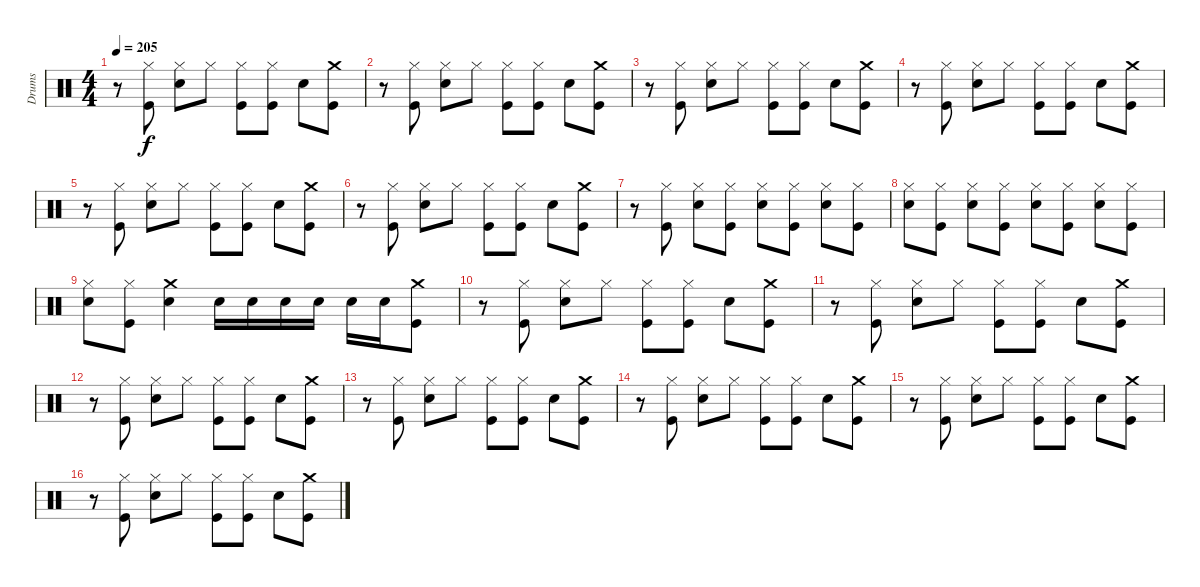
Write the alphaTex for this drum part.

\track ("Drums" "Drums") {instrument percussion}
\staff {score}
\articulation defaults
\ts (4 4)
\tempo 205
\clef neutral
\ks c
r.8{dy f} ("Hi-Hat (closed)" "Kick (hit)").8 ("Hi-Hat (closed)" "Electric Snare (hit)").8 "Hi-Hat (closed)".8 ("Hi-Hat (closed)" "Kick (hit)").8 ("Hi-Hat (closed)" "Kick (hit)").8 "Electric Snare (hit)".8 ("Crash medium (hit)" "Kick (hit)").8 |
r.8 ("Hi-Hat (closed)" "Kick (hit)").8 ("Hi-Hat (closed)" "Electric Snare (hit)").8 "Hi-Hat (closed)".8 ("Hi-Hat (closed)" "Kick (hit)").8 ("Hi-Hat (closed)" "Kick (hit)").8 "Electric Snare (hit)".8 ("Crash medium (hit)" "Kick (hit)").8 |
r.8 ("Hi-Hat (closed)" "Kick (hit)").8 ("Hi-Hat (closed)" "Electric Snare (hit)").8 "Hi-Hat (closed)".8 ("Hi-Hat (closed)" "Kick (hit)").8 ("Hi-Hat (closed)" "Kick (hit)").8 "Electric Snare (hit)".8 ("Crash medium (hit)" "Kick (hit)").8 |
r.8 ("Hi-Hat (closed)" "Kick (hit)").8 ("Hi-Hat (closed)" "Electric Snare (hit)").8 "Hi-Hat (closed)".8 ("Hi-Hat (closed)" "Kick (hit)").8 ("Hi-Hat (closed)" "Kick (hit)").8 "Electric Snare (hit)".8 ("Crash medium (hit)" "Kick (hit)").8 |
r.8 ("Hi-Hat (closed)" "Kick (hit)").8 ("Hi-Hat (closed)" "Electric Snare (hit)").8 "Hi-Hat (closed)".8 ("Hi-Hat (closed)" "Kick (hit)").8 ("Hi-Hat (closed)" "Kick (hit)").8 "Electric Snare (hit)".8 ("Crash medium (hit)" "Kick (hit)").8 |
r.8 ("Hi-Hat (closed)" "Kick (hit)").8 ("Hi-Hat (closed)" "Electric Snare (hit)").8 "Hi-Hat (closed)".8 ("Hi-Hat (closed)" "Kick (hit)").8 ("Hi-Hat (closed)" "Kick (hit)").8 "Electric Snare (hit)".8 ("Crash medium (hit)" "Kick (hit)").8 |
r.8 ("Hi-Hat (closed)" "Kick (hit)").8 ("Hi-Hat (closed)" "Electric Snare (hit)").8 ("Hi-Hat (closed)" "Kick (hit)").8 ("Hi-Hat (closed)" "Electric Snare (hit)").8 ("Hi-Hat (closed)" "Kick (hit)").8 ("Hi-Hat (closed)" "Electric Snare (hit)").8 ("Hi-Hat (closed)" "Kick (hit)").8 |
("Hi-Hat (closed)" "Electric Snare (hit)").8 ("Hi-Hat (closed)" "Kick (hit)").8 ("Hi-Hat (closed)" "Electric Snare (hit)").8 ("Hi-Hat (closed)" "Kick (hit)").8 ("Hi-Hat (closed)" "Electric Snare (hit)").8 ("Hi-Hat (closed)" "Kick (hit)").8 ("Hi-Hat (closed)" "Electric Snare (hit)").8 ("Hi-Hat (closed)" "Kick (hit)").8 |
("Hi-Hat (closed)" "Electric Snare (hit)").8 ("Hi-Hat (closed)" "Kick (hit)").8 ("Crash medium (hit)" "Electric Snare (hit)").4 "Electric Snare (hit)".16 "Electric Snare (hit)".16 "Electric Snare (hit)".16 "Electric Snare (hit)".16 "Electric Snare (hit)".16 "Electric Snare (hit)".16 ("Crash medium (hit)" "Kick (hit)").8 |
r.8 ("Hi-Hat (closed)" "Kick (hit)").8 ("Hi-Hat (closed)" "Electric Snare (hit)").8 "Hi-Hat (closed)".8 ("Hi-Hat (closed)" "Kick (hit)").8 ("Hi-Hat (closed)" "Kick (hit)").8 "Electric Snare (hit)".8 ("Crash medium (hit)" "Kick (hit)").8 |
r.8 ("Hi-Hat (closed)" "Kick (hit)").8 ("Hi-Hat (closed)" "Electric Snare (hit)").8 "Hi-Hat (closed)".8 ("Hi-Hat (closed)" "Kick (hit)").8 ("Hi-Hat (closed)" "Kick (hit)").8 "Electric Snare (hit)".8 ("Crash medium (hit)" "Kick (hit)").8 |
r.8 ("Hi-Hat (closed)" "Kick (hit)").8 ("Hi-Hat (closed)" "Electric Snare (hit)").8 "Hi-Hat (closed)".8 ("Hi-Hat (closed)" "Kick (hit)").8 ("Hi-Hat (closed)" "Kick (hit)").8 "Electric Snare (hit)".8 ("Crash medium (hit)" "Kick (hit)").8 |
r.8 ("Hi-Hat (closed)" "Kick (hit)").8 ("Hi-Hat (closed)" "Electric Snare (hit)").8 "Hi-Hat (closed)".8 ("Hi-Hat (closed)" "Kick (hit)").8 ("Hi-Hat (closed)" "Kick (hit)").8 "Electric Snare (hit)".8 ("Crash medium (hit)" "Kick (hit)").8 |
r.8 ("Hi-Hat (closed)" "Kick (hit)").8 ("Hi-Hat (closed)" "Electric Snare (hit)").8 "Hi-Hat (closed)".8 ("Hi-Hat (closed)" "Kick (hit)").8 ("Hi-Hat (closed)" "Kick (hit)").8 "Electric Snare (hit)".8 ("Crash medium (hit)" "Kick (hit)").8 |
r.8 ("Hi-Hat (closed)" "Kick (hit)").8 ("Hi-Hat (closed)" "Electric Snare (hit)").8 "Hi-Hat (closed)".8 ("Hi-Hat (closed)" "Kick (hit)").8 ("Hi-Hat (closed)" "Kick (hit)").8 "Electric Snare (hit)".8 ("Crash medium (hit)" "Kick (hit)").8 |
r.8 ("Hi-Hat (closed)" "Kick (hit)").8 ("Hi-Hat (closed)" "Electric Snare (hit)").8 "Hi-Hat (closed)".8 ("Hi-Hat (closed)" "Kick (hit)").8 ("Hi-Hat (closed)" "Kick (hit)").8 "Electric Snare (hit)".8 ("Crash medium (hit)" "Kick (hit)").8
